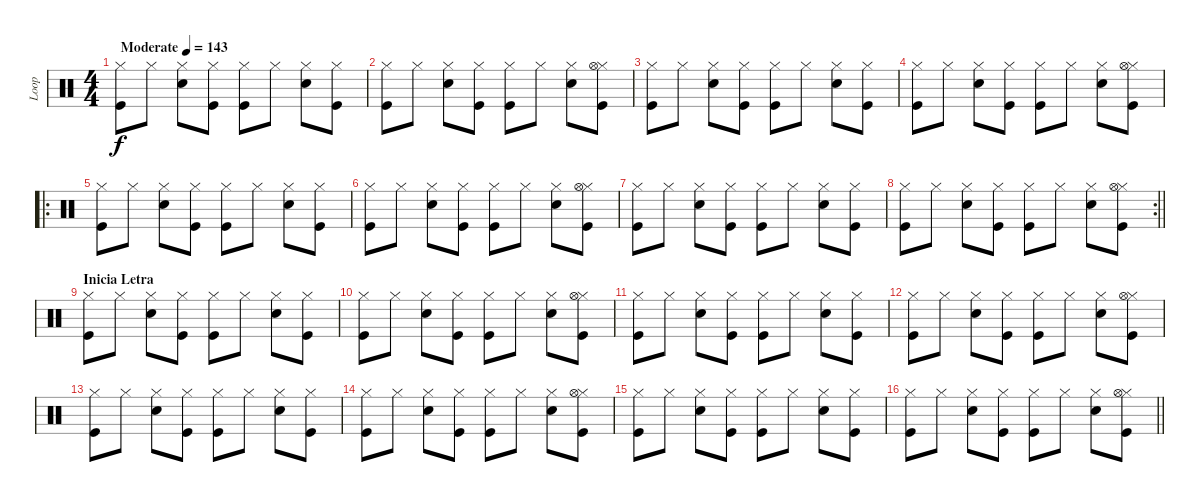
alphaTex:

\track ("Loop" "Loop") {instrument percussion}
\staff {score}
\articulation defaults
\ts (4 4)
\tempo (143 "Moderate")
\clef neutral
\ks c
("Kick (hit)" "Hi-Hat (closed)").8{dy f} "Hi-Hat (closed)".8 ("Snare (hit) 2" "Hi-Hat (closed)").8 ("Hi-Hat (closed)" "Kick (hit)").8 ("Hi-Hat (closed)" "Kick (hit)").8 "Hi-Hat (closed)".8 ("Hi-Hat (closed)" "Snare (hit) 2").8 ("Hi-Hat (closed)" "Kick (hit)").8 |
("Kick (hit)" "Hi-Hat (closed)").8 "Hi-Hat (closed)".8 ("Snare (hit) 2" "Hi-Hat (closed)").8 ("Hi-Hat (closed)" "Kick (hit)").8 ("Hi-Hat (closed)" "Kick (hit)").8 "Hi-Hat (closed)".8 ("Hi-Hat (closed)" "Snare (hit) 2").8 ("Hi-Hat (closed)" "Kick (hit)" "Hi-Hat (open)").8 |
("Kick (hit)" "Hi-Hat (closed)").8 "Hi-Hat (closed)".8 ("Snare (hit) 2" "Hi-Hat (closed)").8 ("Hi-Hat (closed)" "Kick (hit)").8 ("Hi-Hat (closed)" "Kick (hit)").8 "Hi-Hat (closed)".8 ("Hi-Hat (closed)" "Snare (hit) 2").8 ("Hi-Hat (closed)" "Kick (hit)").8 |
("Kick (hit)" "Hi-Hat (closed)").8 "Hi-Hat (closed)".8 ("Snare (hit) 2" "Hi-Hat (closed)").8 ("Hi-Hat (closed)" "Kick (hit)").8 ("Hi-Hat (closed)" "Kick (hit)").8 "Hi-Hat (closed)".8 ("Hi-Hat (closed)" "Snare (hit) 2").8 ("Hi-Hat (closed)" "Kick (hit)" "Hi-Hat (open)").8 |
\ro
("Kick (hit)" "Hi-Hat (closed)").8 "Hi-Hat (closed)".8 ("Snare (hit) 2" "Hi-Hat (closed)").8 ("Hi-Hat (closed)" "Kick (hit)").8 ("Hi-Hat (closed)" "Kick (hit)").8 "Hi-Hat (closed)".8 ("Hi-Hat (closed)" "Snare (hit) 2").8 ("Hi-Hat (closed)" "Kick (hit)").8 |
("Kick (hit)" "Hi-Hat (closed)").8 "Hi-Hat (closed)".8 ("Snare (hit) 2" "Hi-Hat (closed)").8 ("Hi-Hat (closed)" "Kick (hit)").8 ("Hi-Hat (closed)" "Kick (hit)").8 "Hi-Hat (closed)".8 ("Hi-Hat (closed)" "Snare (hit) 2").8 ("Hi-Hat (closed)" "Kick (hit)" "Hi-Hat (open)").8 |
("Kick (hit)" "Hi-Hat (closed)").8 "Hi-Hat (closed)".8 ("Snare (hit) 2" "Hi-Hat (closed)").8 ("Hi-Hat (closed)" "Kick (hit)").8 ("Hi-Hat (closed)" "Kick (hit)").8 "Hi-Hat (closed)".8 ("Hi-Hat (closed)" "Snare (hit) 2").8 ("Hi-Hat (closed)" "Kick (hit)").8 |
\rc 2
\barLineRight lightlight
("Kick (hit)" "Hi-Hat (closed)").8 "Hi-Hat (closed)".8 ("Snare (hit) 2" "Hi-Hat (closed)").8 ("Hi-Hat (closed)" "Kick (hit)").8 ("Hi-Hat (closed)" "Kick (hit)").8 "Hi-Hat (closed)".8 ("Hi-Hat (closed)" "Snare (hit) 2").8 ("Hi-Hat (closed)" "Kick (hit)" "Hi-Hat (open)").8 |
\section ("" "Inicia Letra")
("Kick (hit)" "Hi-Hat (closed)").8 "Hi-Hat (closed)".8 ("Snare (hit) 2" "Hi-Hat (closed)").8 ("Hi-Hat (closed)" "Kick (hit)").8 ("Hi-Hat (closed)" "Kick (hit)").8 "Hi-Hat (closed)".8 ("Hi-Hat (closed)" "Snare (hit) 2").8 ("Hi-Hat (closed)" "Kick (hit)").8 |
("Kick (hit)" "Hi-Hat (closed)").8 "Hi-Hat (closed)".8 ("Snare (hit) 2" "Hi-Hat (closed)").8 ("Hi-Hat (closed)" "Kick (hit)").8 ("Hi-Hat (closed)" "Kick (hit)").8 "Hi-Hat (closed)".8 ("Hi-Hat (closed)" "Snare (hit) 2").8 ("Hi-Hat (closed)" "Kick (hit)" "Hi-Hat (open)").8 |
("Kick (hit)" "Hi-Hat (closed)").8 "Hi-Hat (closed)".8 ("Snare (hit) 2" "Hi-Hat (closed)").8 ("Hi-Hat (closed)" "Kick (hit)").8 ("Hi-Hat (closed)" "Kick (hit)").8 "Hi-Hat (closed)".8 ("Hi-Hat (closed)" "Snare (hit) 2").8 ("Hi-Hat (closed)" "Kick (hit)").8 |
("Kick (hit)" "Hi-Hat (closed)").8 "Hi-Hat (closed)".8 ("Snare (hit) 2" "Hi-Hat (closed)").8 ("Hi-Hat (closed)" "Kick (hit)").8 ("Hi-Hat (closed)" "Kick (hit)").8 "Hi-Hat (closed)".8 ("Hi-Hat (closed)" "Snare (hit) 2").8 ("Hi-Hat (closed)" "Kick (hit)" "Hi-Hat (open)").8 |
("Kick (hit)" "Hi-Hat (closed)").8 "Hi-Hat (closed)".8 ("Snare (hit) 2" "Hi-Hat (closed)").8 ("Hi-Hat (closed)" "Kick (hit)").8 ("Hi-Hat (closed)" "Kick (hit)").8 "Hi-Hat (closed)".8 ("Hi-Hat (closed)" "Snare (hit) 2").8 ("Hi-Hat (closed)" "Kick (hit)").8 |
("Kick (hit)" "Hi-Hat (closed)").8 "Hi-Hat (closed)".8 ("Snare (hit) 2" "Hi-Hat (closed)").8 ("Hi-Hat (closed)" "Kick (hit)").8 ("Hi-Hat (closed)" "Kick (hit)").8 "Hi-Hat (closed)".8 ("Hi-Hat (closed)" "Snare (hit) 2").8 ("Hi-Hat (closed)" "Kick (hit)" "Hi-Hat (open)").8 |
("Kick (hit)" "Hi-Hat (closed)").8 "Hi-Hat (closed)".8 ("Snare (hit) 2" "Hi-Hat (closed)").8 ("Hi-Hat (closed)" "Kick (hit)").8 ("Hi-Hat (closed)" "Kick (hit)").8 "Hi-Hat (closed)".8 ("Hi-Hat (closed)" "Snare (hit) 2").8 ("Hi-Hat (closed)" "Kick (hit)").8 |
\barLineRight lightlight
("Kick (hit)" "Hi-Hat (closed)").8 "Hi-Hat (closed)".8 ("Snare (hit) 2" "Hi-Hat (closed)").8 ("Hi-Hat (closed)" "Kick (hit)").8 ("Hi-Hat (closed)" "Kick (hit)").8 "Hi-Hat (closed)".8 ("Hi-Hat (closed)" "Snare (hit) 2").8 ("Hi-Hat (closed)" "Kick (hit)" "Hi-Hat (open)").8
